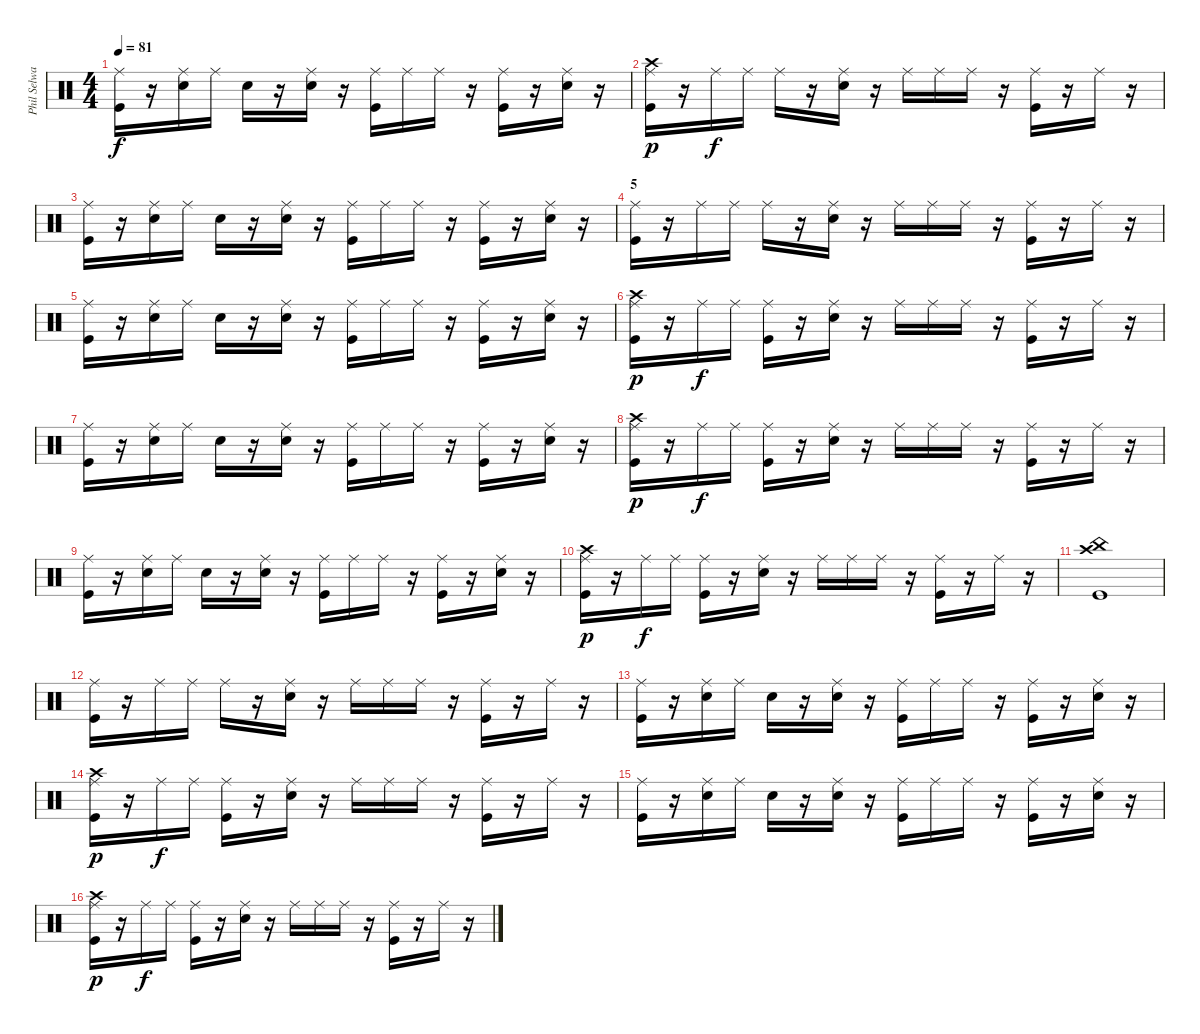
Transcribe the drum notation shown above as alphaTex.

\track ("Phil Selway (Percussions)" "Phil Selwa") {instrument percussion}
\staff {score}
\articulation defaults
\ts (4 4)
\tempo 81
\clef neutral
\ks c
("Ride (middle)" "Kick (hit)").16{dy f} r.16 ("Ride (middle)" "Electric Snare (hit)").16 "Ride (middle)".16 "Snare (hit)".16 r.16 ("Ride (middle)" "Electric Snare (hit)").16 r.16 ("Ride (middle)" "Kick (hit)").16 "Ride (middle)".16 "Ride (middle)".16 r.16 ("Ride (middle)" "Kick (hit)").16 r.16 ("Ride (middle)" "Electric Snare (hit)").16 r.16 |
("Ride (middle)" "Crash high (hit)" "Kick (hit)").16{dy p} r.16 "Ride (middle)".16{dy f} "Ride (middle)".16 "Ride (middle)".16 r.16 ("Ride (middle)" "Electric Snare (hit)").16 r.16 "Ride (middle)".16 "Ride (middle)".16 "Ride (middle)".16 r.16 ("Ride (middle)" "Kick (hit)").16 r.16 "Ride (middle)".16 r.16 |
("Ride (middle)" "Kick (hit)").16 r.16 ("Ride (middle)" "Electric Snare (hit)").16 "Ride (middle)".16 "Snare (hit)".16 r.16 ("Ride (middle)" "Electric Snare (hit)").16 r.16 ("Ride (middle)" "Kick (hit)").16 "Ride (middle)".16 "Ride (middle)".16 r.16 ("Ride (middle)" "Kick (hit)").16 r.16 ("Ride (middle)" "Electric Snare (hit)").16 r.16 |
\section ("" "5")
("Ride (middle)" "Kick (hit)").16 r.16 "Ride (middle)".16 "Ride (middle)".16 "Ride (middle)".16 r.16 ("Ride (middle)" "Electric Snare (hit)").16 r.16 "Ride (middle)".16 "Ride (middle)".16 "Ride (middle)".16 r.16 ("Ride (middle)" "Kick (hit)").16 r.16 "Ride (middle)".16 r.16 |
("Ride (middle)" "Kick (hit)").16 r.16 ("Ride (middle)" "Electric Snare (hit)").16 "Ride (middle)".16 "Snare (hit)".16 r.16 ("Ride (middle)" "Electric Snare (hit)").16 r.16 ("Ride (middle)" "Kick (hit)").16 "Ride (middle)".16 "Ride (middle)".16 r.16 ("Ride (middle)" "Kick (hit)").16 r.16 ("Ride (middle)" "Electric Snare (hit)").16 r.16 |
("Ride (middle)" "Crash high (hit)" "Kick (hit)").16{dy p} r.16 "Ride (middle)".16{dy f} "Ride (middle)".16 ("Ride (middle)" "Kick (hit)").16 r.16 ("Ride (middle)" "Electric Snare (hit)").16 r.16 "Ride (middle)".16 "Ride (middle)".16 "Ride (middle)".16 r.16 ("Ride (middle)" "Kick (hit)").16 r.16 "Ride (middle)".16 r.16 |
("Ride (middle)" "Kick (hit)").16 r.16 ("Ride (middle)" "Electric Snare (hit)").16 "Ride (middle)".16 "Snare (hit)".16 r.16 ("Ride (middle)" "Electric Snare (hit)").16 r.16 ("Ride (middle)" "Kick (hit)").16 "Ride (middle)".16 "Ride (middle)".16 r.16 ("Ride (middle)" "Kick (hit)").16 r.16 ("Ride (middle)" "Electric Snare (hit)").16 r.16 |
("Ride (middle)" "Crash high (hit)" "Kick (hit)").16{dy p} r.16 "Ride (middle)".16{dy f} "Ride (middle)".16 ("Ride (middle)" "Kick (hit)").16 r.16 ("Ride (middle)" "Electric Snare (hit)").16 r.16 "Ride (middle)".16 "Ride (middle)".16 "Ride (middle)".16 r.16 ("Ride (middle)" "Kick (hit)").16 r.16 "Ride (middle)".16 r.16 |
("Ride (middle)" "Kick (hit)").16 r.16 ("Ride (middle)" "Electric Snare (hit)").16 "Ride (middle)".16 "Snare (hit)".16 r.16 ("Ride (middle)" "Electric Snare (hit)").16 r.16 ("Ride (middle)" "Kick (hit)").16 "Ride (middle)".16 "Ride (middle)".16 r.16 ("Ride (middle)" "Kick (hit)").16 r.16 ("Ride (middle)" "Electric Snare (hit)").16 r.16 |
("Ride (middle)" "Crash high (hit)" "Kick (hit)").16{dy p} r.16 "Ride (middle)".16{dy f} "Ride (middle)".16 ("Ride (middle)" "Kick (hit)").16 r.16 ("Ride (middle)" "Electric Snare (hit)").16 r.16 "Ride (middle)".16 "Ride (middle)".16 "Ride (middle)".16 r.16 ("Ride (middle)" "Kick (hit)").16 r.16 "Ride (middle)".16 r.16 |
("China (hit)" "Crash high (hit)" "Kick (hit)").1 |
("Ride (middle)" "Kick (hit)").16 r.16 "Ride (middle)".16 "Ride (middle)".16 "Ride (middle)".16 r.16 ("Ride (middle)" "Electric Snare (hit)").16 r.16 "Ride (middle)".16 "Ride (middle)".16 "Ride (middle)".16 r.16 ("Ride (middle)" "Kick (hit)").16 r.16 "Ride (middle)".16 r.16 |
("Ride (middle)" "Kick (hit)").16 r.16 ("Ride (middle)" "Electric Snare (hit)").16 "Ride (middle)".16 "Snare (hit)".16 r.16 ("Ride (middle)" "Electric Snare (hit)").16 r.16 ("Ride (middle)" "Kick (hit)").16 "Ride (middle)".16 "Ride (middle)".16 r.16 ("Ride (middle)" "Kick (hit)").16 r.16 ("Ride (middle)" "Electric Snare (hit)").16 r.16 |
("Ride (middle)" "Crash high (hit)" "Kick (hit)").16{dy p} r.16 "Ride (middle)".16{dy f} "Ride (middle)".16 ("Ride (middle)" "Kick (hit)").16 r.16 ("Ride (middle)" "Electric Snare (hit)").16 r.16 "Ride (middle)".16 "Ride (middle)".16 "Ride (middle)".16 r.16 ("Ride (middle)" "Kick (hit)").16 r.16 "Ride (middle)".16 r.16 |
("Ride (middle)" "Kick (hit)").16 r.16 ("Ride (middle)" "Electric Snare (hit)").16 "Ride (middle)".16 "Snare (hit)".16 r.16 ("Ride (middle)" "Electric Snare (hit)").16 r.16 ("Ride (middle)" "Kick (hit)").16 "Ride (middle)".16 "Ride (middle)".16 r.16 ("Ride (middle)" "Kick (hit)").16 r.16 ("Ride (middle)" "Electric Snare (hit)").16 r.16 |
("Ride (middle)" "Crash high (hit)" "Kick (hit)").16{dy p} r.16 "Ride (middle)".16{dy f} "Ride (middle)".16 ("Ride (middle)" "Kick (hit)").16 r.16 ("Ride (middle)" "Electric Snare (hit)").16 r.16 "Ride (middle)".16 "Ride (middle)".16 "Ride (middle)".16 r.16 ("Ride (middle)" "Kick (hit)").16 r.16 "Ride (middle)".16 r.16
